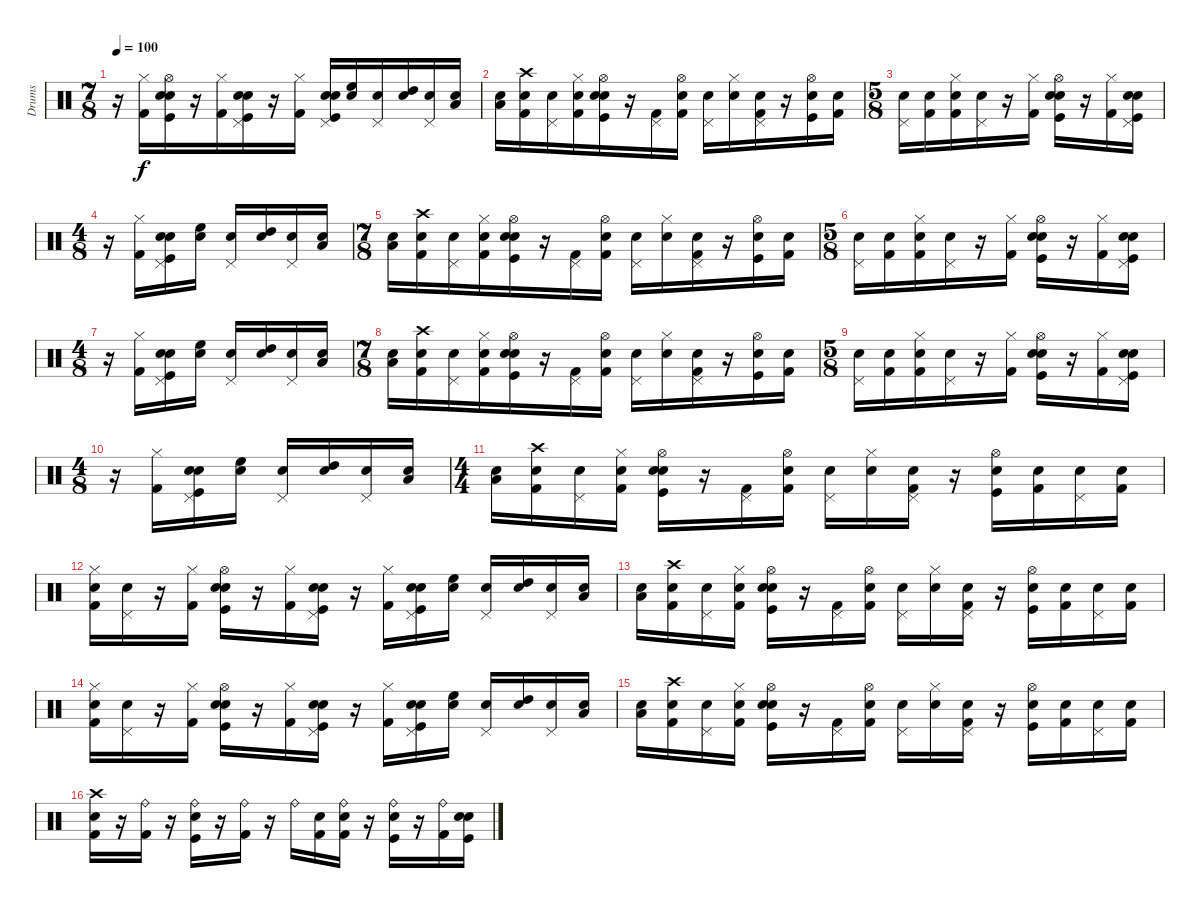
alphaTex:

\track ("Drums" "Drums") {instrument percussion}
\staff {score}
\articulation defaults
\ts (7 8)
\tempo 100
\clef neutral
\ks c
r.16{dy f} ("Kick (hit) 2" "Hi-Hat (closed)").16 ("Snare (hit)" "Hi-Hat (open)" "Kick (hit)" "Electric Snare (hit)").16 r.16 ("Hi-Hat (closed)" "Kick (hit) 2").16 ("Snare (hit)" "Kick (hit)" "Electric Snare (hit)" "Pedal Hi-Hat (hit)").16 r.16 ("Hi-Hat (closed)" "Kick (hit) 2").16 ("Snare (hit)" "Pedal Hi-Hat (hit)" "Kick (hit)" "Electric Snare (hit)").16 ("Snare (hit)" "High Floor Tom (hit)").16 ("Snare (hit)" "Pedal Hi-Hat (hit)").16 ("Snare (hit)" "High Tom (hit)").16 ("Snare (hit)" "Pedal Hi-Hat (hit)").16 ("Snare (hit)" "Low Tom (hit)").16 |
("Snare (hit)" "Low Floor Tom (hit)").16 ("Snare (hit)" "Crash high (hit)" "Kick (hit) 2").16 ("Snare (hit)" "Pedal Hi-Hat (hit)").16 ("Snare (hit)" "Kick (hit) 2" "Hi-Hat (closed)").16 ("Snare (hit)" "Kick (hit)" "Electric Snare (hit)" "Hi-Hat (open)").16 r.16 ("Kick (hit) 2" "Pedal Hi-Hat (hit)").16 ("Snare (hit)" "Kick (hit) 2" "Hi-Hat (open)").16 ("Snare (hit)" "Pedal Hi-Hat (hit)").16 ("Snare (hit)" "Hi-Hat (closed)").16 ("Snare (hit)" "Kick (hit) 2" "Pedal Hi-Hat (hit)").16 r.16 ("Hi-Hat (open)" "Kick (hit)" "Electric Snare (hit)").16 ("Snare (hit)" "Kick (hit) 2").16 |
\ts (5 8)
("Snare (hit)" "Pedal Hi-Hat (hit)").16 ("Snare (hit)" "Kick (hit) 2").16 ("Snare (hit)" "Hi-Hat (closed)" "Kick (hit) 2").16 ("Snare (hit)" "Pedal Hi-Hat (hit)").16 r.16 ("Kick (hit) 2" "Hi-Hat (closed)").16 ("Snare (hit)" "Hi-Hat (open)" "Kick (hit)" "Electric Snare (hit)").16 r.16 ("Hi-Hat (closed)" "Kick (hit) 2").16 ("Snare (hit)" "Kick (hit)" "Electric Snare (hit)" "Pedal Hi-Hat (hit)").16 |
\ts (4 8)
r.16 ("Hi-Hat (closed)" "Kick (hit) 2").16 ("Snare (hit)" "Pedal Hi-Hat (hit)" "Kick (hit)" "Electric Snare (hit)").16 ("Snare (hit)" "High Floor Tom (hit)").16 ("Snare (hit)" "Pedal Hi-Hat (hit)").16 ("Snare (hit)" "High Tom (hit)").16 ("Snare (hit)" "Pedal Hi-Hat (hit)").16 ("Snare (hit)" "Low Tom (hit)").16 |
\ts (7 8)
("Snare (hit)" "Low Floor Tom (hit)").16 ("Snare (hit)" "Crash high (hit)" "Kick (hit) 2").16 ("Snare (hit)" "Pedal Hi-Hat (hit)").16 ("Snare (hit)" "Kick (hit) 2" "Hi-Hat (closed)").16 ("Snare (hit)" "Kick (hit)" "Electric Snare (hit)" "Hi-Hat (open)").16 r.16 ("Kick (hit) 2" "Pedal Hi-Hat (hit)").16 ("Snare (hit)" "Kick (hit) 2" "Hi-Hat (open)").16 ("Snare (hit)" "Pedal Hi-Hat (hit)").16 ("Snare (hit)" "Hi-Hat (closed)").16 ("Snare (hit)" "Kick (hit) 2" "Pedal Hi-Hat (hit)").16 r.16 ("Hi-Hat (open)" "Kick (hit)" "Electric Snare (hit)").16 ("Snare (hit)" "Kick (hit) 2").16 |
\ts (5 8)
("Snare (hit)" "Pedal Hi-Hat (hit)").16 ("Snare (hit)" "Kick (hit) 2").16 ("Snare (hit)" "Hi-Hat (closed)" "Kick (hit) 2").16 ("Snare (hit)" "Pedal Hi-Hat (hit)").16 r.16 ("Kick (hit) 2" "Hi-Hat (closed)").16 ("Snare (hit)" "Hi-Hat (open)" "Kick (hit)" "Electric Snare (hit)").16 r.16 ("Hi-Hat (closed)" "Kick (hit) 2").16 ("Snare (hit)" "Kick (hit)" "Electric Snare (hit)" "Pedal Hi-Hat (hit)").16 |
\ts (4 8)
r.16 ("Hi-Hat (closed)" "Kick (hit) 2").16 ("Snare (hit)" "Pedal Hi-Hat (hit)" "Kick (hit)" "Electric Snare (hit)").16 ("Snare (hit)" "High Floor Tom (hit)").16 ("Snare (hit)" "Pedal Hi-Hat (hit)").16 ("Snare (hit)" "High Tom (hit)").16 ("Snare (hit)" "Pedal Hi-Hat (hit)").16 ("Snare (hit)" "Low Tom (hit)").16 |
\ts (7 8)
("Snare (hit)" "Low Floor Tom (hit)").16 ("Snare (hit)" "Crash high (hit)" "Kick (hit) 2").16 ("Snare (hit)" "Pedal Hi-Hat (hit)").16 ("Snare (hit)" "Kick (hit) 2" "Hi-Hat (closed)").16 ("Snare (hit)" "Kick (hit)" "Electric Snare (hit)" "Hi-Hat (open)").16 r.16 ("Kick (hit) 2" "Pedal Hi-Hat (hit)").16 ("Snare (hit)" "Kick (hit) 2" "Hi-Hat (open)").16 ("Snare (hit)" "Pedal Hi-Hat (hit)").16 ("Snare (hit)" "Hi-Hat (closed)").16 ("Snare (hit)" "Kick (hit) 2" "Pedal Hi-Hat (hit)").16 r.16 ("Hi-Hat (open)" "Kick (hit)" "Electric Snare (hit)").16 ("Snare (hit)" "Kick (hit) 2").16 |
\ts (5 8)
("Snare (hit)" "Pedal Hi-Hat (hit)").16 ("Snare (hit)" "Kick (hit) 2").16 ("Snare (hit)" "Hi-Hat (closed)" "Kick (hit) 2").16 ("Snare (hit)" "Pedal Hi-Hat (hit)").16 r.16 ("Kick (hit) 2" "Hi-Hat (closed)").16 ("Snare (hit)" "Hi-Hat (open)" "Kick (hit)" "Electric Snare (hit)").16 r.16 ("Hi-Hat (closed)" "Kick (hit) 2").16 ("Snare (hit)" "Kick (hit)" "Electric Snare (hit)" "Pedal Hi-Hat (hit)").16 |
\ts (4 8)
r.16 ("Hi-Hat (closed)" "Kick (hit) 2").16 ("Snare (hit)" "Pedal Hi-Hat (hit)" "Kick (hit)" "Electric Snare (hit)").16 ("Snare (hit)" "High Floor Tom (hit)").16 ("Snare (hit)" "Pedal Hi-Hat (hit)").16 ("Snare (hit)" "High Tom (hit)").16 ("Snare (hit)" "Pedal Hi-Hat (hit)").16 ("Snare (hit)" "Low Tom (hit)").16 |
\ts (4 4)
("Snare (hit)" "Low Floor Tom (hit)").16 ("Snare (hit)" "Crash high (hit)" "Kick (hit) 2").16 ("Snare (hit)" "Pedal Hi-Hat (hit)").16 ("Snare (hit)" "Kick (hit) 2" "Hi-Hat (closed)").16 ("Snare (hit)" "Kick (hit)" "Electric Snare (hit)" "Hi-Hat (open)").16 r.16 ("Kick (hit) 2" "Pedal Hi-Hat (hit)").16 ("Snare (hit)" "Kick (hit) 2" "Hi-Hat (open)").16 ("Snare (hit)" "Pedal Hi-Hat (hit)").16 ("Snare (hit)" "Hi-Hat (closed)").16 ("Snare (hit)" "Kick (hit) 2" "Pedal Hi-Hat (hit)").16 r.16 ("Hi-Hat (open)" "Kick (hit)" "Electric Snare (hit)").16 ("Snare (hit)" "Kick (hit) 2").16 ("Snare (hit)" "Pedal Hi-Hat (hit)").16 ("Snare (hit)" "Kick (hit) 2").16 |
("Snare (hit)" "Hi-Hat (closed)" "Kick (hit) 2").16 ("Snare (hit)" "Pedal Hi-Hat (hit)").16 r.16 ("Kick (hit) 2" "Hi-Hat (closed)").16 ("Snare (hit)" "Hi-Hat (open)" "Kick (hit)" "Electric Snare (hit)").16 r.16 ("Hi-Hat (closed)" "Kick (hit) 2").16 ("Snare (hit)" "Kick (hit)" "Electric Snare (hit)" "Pedal Hi-Hat (hit)").16 r.16 ("Hi-Hat (closed)" "Kick (hit) 2").16 ("Snare (hit)" "Pedal Hi-Hat (hit)" "Kick (hit)" "Electric Snare (hit)").16 ("Snare (hit)" "High Floor Tom (hit)").16 ("Snare (hit)" "Pedal Hi-Hat (hit)").16 ("Snare (hit)" "High Tom (hit)").16 ("Snare (hit)" "Pedal Hi-Hat (hit)").16 ("Snare (hit)" "Low Tom (hit)").16 |
("Snare (hit)" "Low Floor Tom (hit)").16 ("Snare (hit)" "Crash high (hit)" "Kick (hit) 2").16 ("Snare (hit)" "Pedal Hi-Hat (hit)").16 ("Snare (hit)" "Kick (hit) 2" "Hi-Hat (closed)").16 ("Snare (hit)" "Kick (hit)" "Electric Snare (hit)" "Hi-Hat (open)").16 r.16 ("Kick (hit) 2" "Pedal Hi-Hat (hit)").16 ("Snare (hit)" "Kick (hit) 2" "Hi-Hat (open)").16 ("Snare (hit)" "Pedal Hi-Hat (hit)").16 ("Snare (hit)" "Hi-Hat (closed)").16 ("Snare (hit)" "Kick (hit) 2" "Pedal Hi-Hat (hit)").16 r.16 ("Hi-Hat (open)" "Kick (hit)" "Electric Snare (hit)").16 ("Snare (hit)" "Kick (hit) 2").16 ("Snare (hit)" "Pedal Hi-Hat (hit)").16 ("Snare (hit)" "Kick (hit) 2").16 |
("Snare (hit)" "Hi-Hat (closed)" "Kick (hit) 2").16 ("Snare (hit)" "Pedal Hi-Hat (hit)").16 r.16 ("Kick (hit) 2" "Hi-Hat (closed)").16 ("Snare (hit)" "Hi-Hat (open)" "Kick (hit)" "Electric Snare (hit)").16 r.16 ("Hi-Hat (closed)" "Kick (hit) 2").16 ("Snare (hit)" "Kick (hit)" "Electric Snare (hit)" "Pedal Hi-Hat (hit)").16 r.16 ("Hi-Hat (closed)" "Kick (hit) 2").16 ("Snare (hit)" "Pedal Hi-Hat (hit)" "Kick (hit)" "Electric Snare (hit)").16 ("Snare (hit)" "High Floor Tom (hit)").16 ("Snare (hit)" "Pedal Hi-Hat (hit)").16 ("Snare (hit)" "High Tom (hit)").16 ("Snare (hit)" "Pedal Hi-Hat (hit)").16 ("Snare (hit)" "Low Tom (hit)").16 |
("Snare (hit)" "Low Floor Tom (hit)").16 ("Snare (hit)" "Crash high (hit)" "Kick (hit) 2").16 ("Snare (hit)" "Pedal Hi-Hat (hit)").16 ("Snare (hit)" "Kick (hit) 2" "Hi-Hat (closed)").16 ("Snare (hit)" "Kick (hit)" "Electric Snare (hit)" "Hi-Hat (open)").16 r.16 ("Kick (hit) 2" "Pedal Hi-Hat (hit)").16 ("Snare (hit)" "Kick (hit) 2" "Hi-Hat (open)").16 ("Snare (hit)" "Pedal Hi-Hat (hit)").16 ("Snare (hit)" "Hi-Hat (closed)").16 ("Snare (hit)" "Kick (hit) 2" "Pedal Hi-Hat (hit)").16 r.16 ("Hi-Hat (open)" "Kick (hit)" "Electric Snare (hit)").16 ("Snare (hit)" "Kick (hit) 2").16 ("Snare (hit)" "Pedal Hi-Hat (hit)").16 ("Snare (hit)" "Kick (hit) 2").16 |
("Snare (hit)" "Kick (hit) 2" "Crash high (hit)").16 r.16 ("Ride (bell)" "Kick (hit) 2").16 r.16 ("Ride (bell)" "Kick (hit)" "Electric Snare (hit)").16 r.16 ("Ride (bell)" "Kick (hit) 2").16 r.16 "Ride (bell)".16 ("Snare (hit)" "Kick (hit) 2").16 ("Snare (hit)" "Kick (hit) 2" "Ride (bell)").16 r.16 ("Ride (bell)" "Kick (hit)" "Electric Snare (hit)").16 r.16 ("Ride (bell)" "Kick (hit) 2").16 ("Snare (hit)" "Kick (hit)" "Electric Snare (hit)").16
